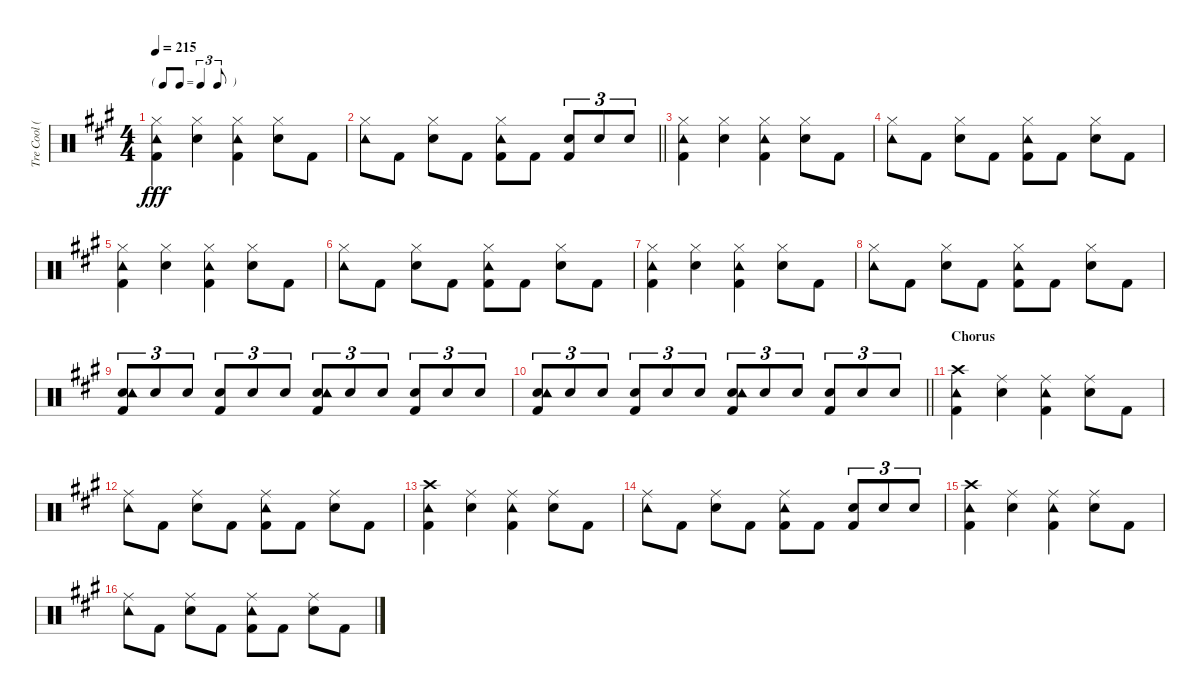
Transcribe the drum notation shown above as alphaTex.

\track ("Tre Cool (Drums)" "Tre Cool (") {instrument percussion}
\staff {score}
\articulation defaults
\ts (4 4)
\tf triplet8th
\tempo 215
\clef neutral
\ks a
("Hi-Hat (closed)" "Kick (hit) 2" "Tambourine (hit)").4{dy fff} ("Hi-Hat (closed)" "Electric Snare (hit)").4 ("Hi-Hat (closed)" "Kick (hit) 2" "Tambourine (hit)").4 ("Hi-Hat (closed)" "Electric Snare (hit)").8 "Kick (hit) 2".8 |
\barLineRight lightlight
("Hi-Hat (closed)" "Tambourine (hit)").8 "Kick (hit) 2".8 ("Hi-Hat (closed)" "Electric Snare (hit)").8 "Kick (hit) 2".8 ("Hi-Hat (closed)" "Kick (hit) 2" "Tambourine (hit)").8 "Kick (hit) 2".8 ("Electric Snare (hit)" "Kick (hit) 2").8{tu (3 2)} "Electric Snare (hit)".8{tu (3 2)} "Electric Snare (hit)".8{tu (3 2)} |
("Hi-Hat (closed)" "Kick (hit) 2" "Tambourine (hit)").4 ("Hi-Hat (closed)" "Electric Snare (hit)").4 ("Hi-Hat (closed)" "Kick (hit) 2" "Tambourine (hit)").4 ("Hi-Hat (closed)" "Electric Snare (hit)").8 "Kick (hit) 2".8 |
("Hi-Hat (closed)" "Tambourine (hit)").8 "Kick (hit) 2".8 ("Hi-Hat (closed)" "Electric Snare (hit)").8 "Kick (hit) 2".8 ("Hi-Hat (closed)" "Kick (hit) 2" "Tambourine (hit)").8 "Kick (hit) 2".8 ("Hi-Hat (closed)" "Electric Snare (hit)").8 "Kick (hit) 2".8 |
("Hi-Hat (closed)" "Kick (hit) 2" "Tambourine (hit)").4 ("Hi-Hat (closed)" "Electric Snare (hit)").4 ("Hi-Hat (closed)" "Kick (hit) 2" "Tambourine (hit)").4 ("Hi-Hat (closed)" "Electric Snare (hit)").8 "Kick (hit) 2".8 |
("Hi-Hat (closed)" "Tambourine (hit)").8 "Kick (hit) 2".8 ("Hi-Hat (closed)" "Electric Snare (hit)").8 "Kick (hit) 2".8 ("Hi-Hat (closed)" "Kick (hit) 2" "Tambourine (hit)").8 "Kick (hit) 2".8 ("Hi-Hat (closed)" "Electric Snare (hit)").8 "Kick (hit) 2".8 |
("Hi-Hat (closed)" "Kick (hit) 2" "Tambourine (hit)").4 ("Hi-Hat (closed)" "Electric Snare (hit)").4 ("Hi-Hat (closed)" "Kick (hit) 2" "Tambourine (hit)").4 ("Hi-Hat (closed)" "Electric Snare (hit)").8 "Kick (hit) 2".8 |
("Hi-Hat (closed)" "Tambourine (hit)").8 "Kick (hit) 2".8 ("Hi-Hat (closed)" "Electric Snare (hit)").8 "Kick (hit) 2".8 ("Hi-Hat (closed)" "Kick (hit) 2" "Tambourine (hit)").8 "Kick (hit) 2".8 ("Hi-Hat (closed)" "Electric Snare (hit)").8 "Kick (hit) 2".8 |
("Electric Snare (hit)" "Tambourine (hit)" "Kick (hit) 2").8{tu (3 2)} "Electric Snare (hit)".8{tu (3 2)} "Electric Snare (hit)".8{tu (3 2)} ("Electric Snare (hit)" "Kick (hit) 2").8{tu (3 2)} "Electric Snare (hit)".8{tu (3 2)} "Electric Snare (hit)".8{tu (3 2)} ("Electric Snare (hit)" "Tambourine (hit)" "Kick (hit) 2").8{tu (3 2)} "Electric Snare (hit)".8{tu (3 2)} "Electric Snare (hit)".8{tu (3 2)} ("Electric Snare (hit)" "Kick (hit) 2").8{tu (3 2)} "Electric Snare (hit)".8{tu (3 2)} "Electric Snare (hit)".8{tu (3 2)} |
\barLineRight lightlight
("Electric Snare (hit)" "Tambourine (hit)" "Kick (hit) 2").8{tu (3 2)} "Electric Snare (hit)".8{tu (3 2)} "Electric Snare (hit)".8{tu (3 2)} ("Electric Snare (hit)" "Kick (hit) 2").8{tu (3 2)} "Electric Snare (hit)".8{tu (3 2)} "Electric Snare (hit)".8{tu (3 2)} ("Electric Snare (hit)" "Tambourine (hit)" "Kick (hit) 2").8{tu (3 2)} "Electric Snare (hit)".8{tu (3 2)} "Electric Snare (hit)".8{tu (3 2)} ("Electric Snare (hit)" "Kick (hit) 2").8{tu (3 2)} "Electric Snare (hit)".8{tu (3 2)} "Electric Snare (hit)".8{tu (3 2)} |
\section ("" "Chorus")
("Crash high (hit)" "Kick (hit) 2" "Tambourine (hit)").4 ("Ride (middle)" "Electric Snare (hit)").4 ("Ride (middle)" "Kick (hit) 2" "Tambourine (hit)").4 ("Ride (middle)" "Electric Snare (hit)").8 "Kick (hit) 2".8 |
("Ride (middle)" "Tambourine (hit)").8 "Kick (hit) 2".8 ("Ride (middle)" "Electric Snare (hit)").8 "Kick (hit) 2".8 ("Ride (middle)" "Kick (hit) 2" "Tambourine (hit)").8 "Kick (hit) 2".8 ("Ride (middle)" "Electric Snare (hit)").8 "Kick (hit) 2".8 |
("Crash high (hit)" "Kick (hit) 2" "Tambourine (hit)").4 ("Ride (middle)" "Electric Snare (hit)").4 ("Ride (middle)" "Kick (hit) 2" "Tambourine (hit)").4 ("Ride (middle)" "Electric Snare (hit)").8 "Kick (hit) 2".8 |
("Ride (middle)" "Tambourine (hit)").8 "Kick (hit) 2".8 ("Ride (middle)" "Electric Snare (hit)").8 "Kick (hit) 2".8 ("Ride (middle)" "Kick (hit) 2" "Tambourine (hit)").8 "Kick (hit) 2".8 ("Electric Snare (hit)" "Kick (hit) 2").8{tu (3 2)} "Electric Snare (hit)".8{tu (3 2)} "Electric Snare (hit)".8{tu (3 2)} |
("Crash high (hit)" "Kick (hit) 2" "Tambourine (hit)").4 ("Ride (middle)" "Electric Snare (hit)").4 ("Ride (middle)" "Kick (hit) 2" "Tambourine (hit)").4 ("Ride (middle)" "Electric Snare (hit)").8 "Kick (hit) 2".8 |
("Ride (middle)" "Tambourine (hit)").8 "Kick (hit) 2".8 ("Ride (middle)" "Electric Snare (hit)").8 "Kick (hit) 2".8 ("Ride (middle)" "Kick (hit) 2" "Tambourine (hit)").8 "Kick (hit) 2".8 ("Ride (middle)" "Electric Snare (hit)").8 "Kick (hit) 2".8
